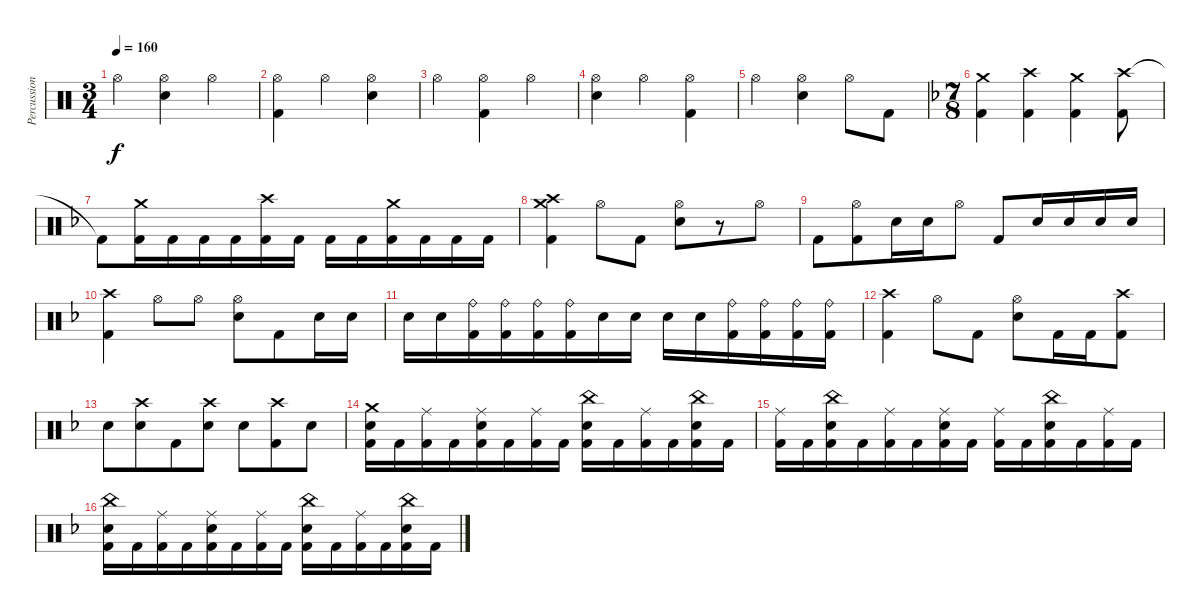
\track ("Percussion" "Percussion") {instrument percussion}
\staff {score}
\articulation defaults
\ts (3 4)
\tempo 160
\clef neutral
\ks c "Hi-Hat (open)".4{dy f}
("Hi-Hat (open)" "Snare (hit) 2").4 "Hi-Hat (open)".4 |
("Hi-Hat (open)" "Kick (hit) 2").4 "Hi-Hat (open)".4 ("Hi-Hat (open)" "Snare (hit) 2").4 |
"Hi-Hat (open)".4 ("Hi-Hat (open)" "Kick (hit) 2").4 "Hi-Hat (open)".4 |
("Hi-Hat (open)" "Snare (hit) 2").4 "Hi-Hat (open)".4 ("Hi-Hat (open)" "Kick (hit) 2").4 |
"Hi-Hat (open)".4 ("Hi-Hat (open)" "Snare (hit) 2").4 "Hi-Hat (open)".8 "Kick (hit) 2".8 |
\ts (7 8)
\ks dminor
("Crash medium (hit)" "Kick (hit) 2").4 ("Crash high (hit)" "Kick (hit) 2").4 ("Crash medium (hit)" "Kick (hit) 2").4 ("Crash high (hit)" "Kick (hit) 2").8 |
"Kick (hit) 2"{t}.8 ("Crash medium (hit)" "Kick (hit) 2").16 "Kick (hit) 2".16 "Kick (hit) 2".16 "Kick (hit) 2".16 ("Crash high (hit)" "Kick (hit) 2").16 "Kick (hit) 2".16 "Kick (hit) 2".16 "Kick (hit) 2".16 ("Crash medium (hit)" "Kick (hit) 2").16 "Kick (hit) 2".16 "Kick (hit) 2".16 "Kick (hit) 2".16 |
("Crash medium (hit)" "Crash high (hit)" "Kick (hit) 2").4 "Hi-Hat (open)".8 "Kick (hit) 2".8 ("Hi-Hat (open)" "Electric Snare (hit)").8 r.8 "Hi-Hat (open)".8 |
"Kick (hit) 2".8 ("Hi-Hat (open)" "Kick (hit) 2").8 "Electric Snare (hit)".16 "Electric Snare (hit)".16 "Hi-Hat (open)".8 "Kick (hit) 2".8 "Electric Snare (hit)".16 "Electric Snare (hit)".16 "Electric Snare (hit)".16 "Electric Snare (hit)".16 |
("Crash high (hit)" "Kick (hit) 2").4 "Hi-Hat (open)".8 "Hi-Hat (open)".8 ("Hi-Hat (open)" "Electric Snare (hit)").8 "Kick (hit) 2".8 "Electric Snare (hit)".16 "Electric Snare (hit)".16 |
"Electric Snare (hit)".16 "Electric Snare (hit)".16 ("Ride (bell)" "Kick (hit) 2").16 ("Ride (bell)" "Kick (hit) 2").16 ("Ride (bell)" "Kick (hit) 2").16 ("Ride (bell)" "Kick (hit) 2").16 "Electric Snare (hit)".16 "Electric Snare (hit)".16 "Electric Snare (hit)".16 "Electric Snare (hit)".16 ("Ride (bell)" "Kick (hit) 2").16 ("Ride (bell)" "Kick (hit) 2").16 ("Ride (bell)" "Kick (hit) 2").16 ("Ride (bell)" "Kick (hit) 2").16 |
("Crash high (hit)" "Kick (hit) 2").4 "Hi-Hat (open)".8 "Kick (hit) 2".8 ("Hi-Hat (open)" "Electric Snare (hit)").8 "Kick (hit) 2".16 "Kick (hit) 2".16 ("Crash high (hit)" "Kick (hit) 2").8 |
"Electric Snare (hit)".8 ("Crash high (hit)" "Electric Snare (hit)").8 "Kick (hit) 2".8 ("Crash high (hit)" "Electric Snare (hit)").8 "Electric Snare (hit)".8 ("Crash high (hit)" "Kick (hit) 2").8 "Electric Snare (hit)".8 |
("Crash medium (hit)" "Electric Snare (hit)" "Kick (hit) 2").16 "Kick (hit) 2".16 ("Ride (middle)" "Kick (hit) 2").16 "Kick (hit) 2".16 ("Ride (middle)" "Electric Snare (hit)" "Kick (hit) 2").16 "Kick (hit) 2".16 ("Ride (middle)" "Kick (hit) 2").16 "Kick (hit) 2".16 ("China (hit)" "Electric Snare (hit)" "Kick (hit) 2").16 "Kick (hit) 2".16 ("Ride (middle)" "Kick (hit) 2").16 "Kick (hit) 2".16 ("China (hit)" "Electric Snare (hit)" "Kick (hit) 2").16 "Kick (hit) 2".16 |
("Ride (middle)" "Kick (hit) 2").16 "Kick (hit) 2".16 ("China (hit)" "Electric Snare (hit)" "Kick (hit) 2").16 "Kick (hit) 2".16 ("Ride (middle)" "Kick (hit) 2").16 "Kick (hit) 2".16 ("Ride (middle)" "Electric Snare (hit)" "Kick (hit) 2").16 "Kick (hit) 2".16 ("Ride (middle)" "Kick (hit) 2").16 "Kick (hit) 2".16 ("China (hit)" "Electric Snare (hit)" "Kick (hit) 2").16 "Kick (hit) 2".16 ("Ride (middle)" "Kick (hit) 2").16 "Kick (hit) 2".16 |
("China (hit)" "Electric Snare (hit)" "Kick (hit) 2").16 "Kick (hit) 2".16 ("Ride (middle)" "Kick (hit) 2").16 "Kick (hit) 2".16 ("Ride (middle)" "Electric Snare (hit)" "Kick (hit) 2").16 "Kick (hit) 2".16 ("Ride (middle)" "Kick (hit) 2").16 "Kick (hit) 2".16 ("China (hit)" "Electric Snare (hit)" "Kick (hit) 2").16 "Kick (hit) 2".16 ("Ride (middle)" "Kick (hit) 2").16 "Kick (hit) 2".16 ("China (hit)" "Electric Snare (hit)" "Kick (hit) 2").16 "Kick (hit) 2".16
